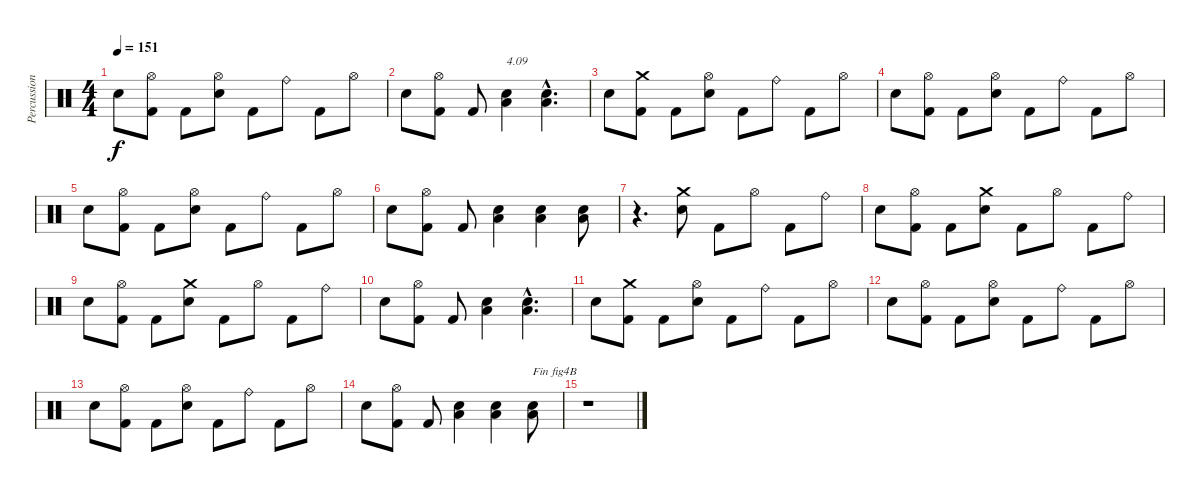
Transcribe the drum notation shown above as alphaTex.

\track ("Percussions" "Percussion") {instrument percussion}
\staff {score}
\articulation defaults
\ts (4 4)
\tempo 151
\clef neutral
\ks c "Electric Snare (hit)".8{dy f}
("Kick (hit) 2" "Hi-Hat (open)").8 "Kick (hit) 2".8 ("Electric Snare (hit)" "Hi-Hat (open)").8 "Kick (hit) 2".8 "Ride (bell)".8 "Kick (hit) 2".8 "Hi-Hat (open)".8 |
"Electric Snare (hit)".8 ("Kick (hit) 2" "Hi-Hat (open)").8 "Kick (hit) 2".8 ("Electric Snare (hit)" "Low Floor Tom (hit)").4{txt "4.09"} ("Electric Snare (hit)"{hac} "Low Floor Tom (hit)"{hac}).4{d} |
"Electric Snare (hit)".8 ("Kick (hit) 2" "Crash medium (hit)").8 "Kick (hit) 2".8 ("Electric Snare (hit)" "Hi-Hat (open)").8 "Kick (hit) 2".8 "Ride (bell)".8 "Kick (hit) 2".8 "Hi-Hat (open)".8 |
"Electric Snare (hit)".8 ("Kick (hit) 2" "Hi-Hat (open)").8 "Kick (hit) 2".8 ("Electric Snare (hit)" "Hi-Hat (open)").8 "Kick (hit) 2".8 "Ride (bell)".8 "Kick (hit) 2".8 "Hi-Hat (open)".8 |
"Electric Snare (hit)".8 ("Kick (hit) 2" "Hi-Hat (open)").8 "Kick (hit) 2".8 ("Electric Snare (hit)" "Hi-Hat (open)").8 "Kick (hit) 2".8 "Ride (bell)".8 "Kick (hit) 2".8 "Hi-Hat (open)".8 |
"Electric Snare (hit)".8 ("Kick (hit) 2" "Hi-Hat (open)").8 "Kick (hit) 2".8 ("Electric Snare (hit)" "Low Floor Tom (hit)").4 ("Electric Snare (hit)" "Low Floor Tom (hit)").4 ("Electric Snare (hit)" "Low Floor Tom (hit)").8 |
r.4{d} ("Electric Snare (hit)" "Crash medium (hit)").8 "Kick (hit) 2".8 "Hi-Hat (open)".8 "Kick (hit) 2".8 "Ride (bell)".8 |
"Electric Snare (hit)".8 ("Kick (hit) 2" "Hi-Hat (open)").8 "Kick (hit) 2".8 ("Electric Snare (hit)" "Crash medium (hit)").8 "Kick (hit) 2".8 "Hi-Hat (open)".8 "Kick (hit) 2".8 "Ride (bell)".8 |
"Electric Snare (hit)".8 ("Kick (hit) 2" "Hi-Hat (open)").8 "Kick (hit) 2".8 ("Electric Snare (hit)" "Crash medium (hit)").8 "Kick (hit) 2".8 "Hi-Hat (open)".8 "Kick (hit) 2".8 "Ride (bell)".8 |
"Electric Snare (hit)".8 ("Kick (hit) 2" "Hi-Hat (open)").8 "Kick (hit) 2".8 ("Electric Snare (hit)" "Low Floor Tom (hit)").4 ("Electric Snare (hit)"{hac} "Low Floor Tom (hit)"{hac}).4{d} |
"Electric Snare (hit)".8 ("Kick (hit) 2" "Crash medium (hit)").8 "Kick (hit) 2".8 ("Electric Snare (hit)" "Hi-Hat (open)").8 "Kick (hit) 2".8 "Ride (bell)".8 "Kick (hit) 2".8 "Hi-Hat (open)".8 |
"Electric Snare (hit)".8 ("Kick (hit) 2" "Hi-Hat (open)").8 "Kick (hit) 2".8 ("Electric Snare (hit)" "Hi-Hat (open)").8 "Kick (hit) 2".8 "Ride (bell)".8 "Kick (hit) 2".8 "Hi-Hat (open)".8 |
"Electric Snare (hit)".8 ("Kick (hit) 2" "Hi-Hat (open)").8 "Kick (hit) 2".8 ("Electric Snare (hit)" "Hi-Hat (open)").8 "Kick (hit) 2".8 "Ride (bell)".8 "Kick (hit) 2".8 "Hi-Hat (open)".8 |
"Electric Snare (hit)".8 ("Kick (hit) 2" "Hi-Hat (open)").8 "Kick (hit) 2".8 ("Electric Snare (hit)" "Low Floor Tom (hit)").4 ("Electric Snare (hit)" "Low Floor Tom (hit)").4 ("Electric Snare (hit)" "Low Floor Tom (hit)").8{txt "Fin fig4B"} |
r.1
